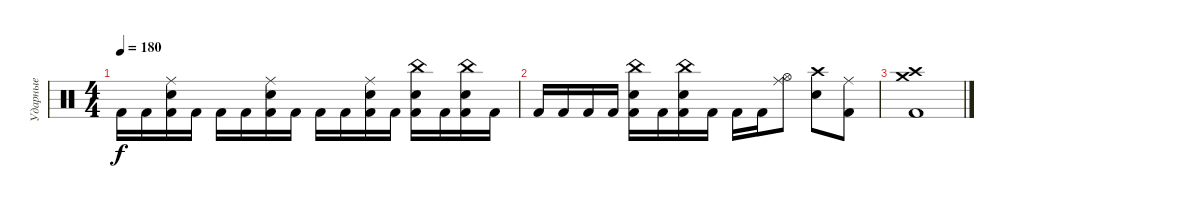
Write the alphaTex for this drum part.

\track ("Ударные" "Ударные") {instrument percussion}
\staff {score}
\articulation defaults
\ts (4 4)
\tempo 180
\clef neutral
\ks c "Kick (hit) 2".16{dy f} "Kick (hit) 2".16
("Kick (hit) 2" "Electric Snare (hit)" "Ride (middle)").16 "Kick (hit) 2".16 "Kick (hit) 2".16 "Kick (hit) 2".16 ("Kick (hit) 2" "Electric Snare (hit)" "Ride (middle)").16 "Kick (hit) 2".16 "Kick (hit) 2".16 "Kick (hit) 2".16 ("Kick (hit) 2" "Electric Snare (hit)" "Ride (middle)").16 "Kick (hit) 2".16 ("Kick (hit) 2" "Electric Snare (hit)" "China (hit)").16 "Kick (hit) 2".16 ("Kick (hit) 2" "Electric Snare (hit)" "China (hit)").16 "Kick (hit) 2".16 |
"Kick (hit) 2".16 "Kick (hit) 2".16 "Kick (hit) 2".16 "Kick (hit) 2".16 ("Kick (hit) 2" "Electric Snare (hit)" "China (hit)").16 "Kick (hit) 2".16 ("Kick (hit) 2" "Electric Snare (hit)" "China (hit)").16 "Kick (hit) 2".16 "Kick (hit) 2".16 "Kick (hit) 2".16 ("Hi-Hat (open)" "Ride (middle)").8 ("Electric Snare (hit)" "Crash high (hit)").8 ("Kick (hit) 2" "Ride (middle)").8 |
("Kick (hit) 2" "Crash high (hit)" "Crash medium (hit)").1
